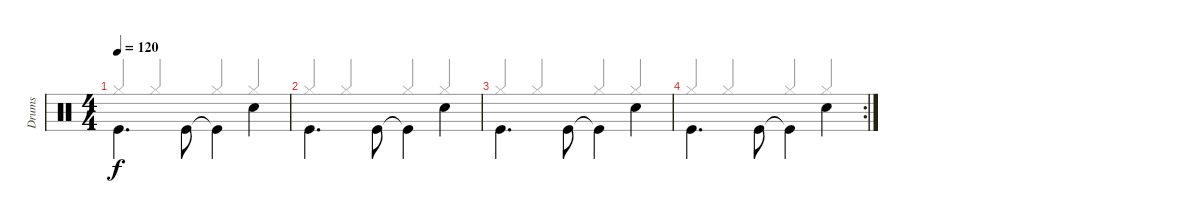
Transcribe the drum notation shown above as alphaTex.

\track ("Drums" "Drums") {instrument percussion}
\staff {score}
\articulation defaults
\voice
\ts (4 4)
\tempo 120
\clef neutral
\ks c "Kick (hit)".4{d dy f beam Down} "Kick (hit)".8{beam Down} "Kick (hit)"{t}.4{beam Down} "Snare (hit) 2".4{beam Down}
|
"Kick (hit)".4{d beam Down} "Kick (hit)".8{beam Down} "Kick (hit)"{t}.4{beam Down} "Snare (hit) 2".4{beam Down} |
"Kick (hit)".4{d beam Down} "Kick (hit)".8{beam Down} "Kick (hit)"{t}.4{beam Down} "Snare (hit) 2".4{beam Down} |
\rc 2 "Kick (hit)".4{d beam Down} "Kick (hit)".8{beam Down} "Kick (hit)"{t}.4{beam Down} "Snare (hit) 2".4{beam Down}
\voice
\clef neutral
\ottava regular
\simile none
\ks c "Hi-Hat (closed)".4{dy f beam Up} "Hi-Hat (closed)".4{beam Up} "Hi-Hat (closed)".4{beam Up} "Hi-Hat (closed)".4{beam Up}
|
"Hi-Hat (closed)".4{beam Up} "Hi-Hat (closed)".4{beam Up} "Hi-Hat (closed)".4{beam Up} "Hi-Hat (closed)".4{beam Up} |
"Hi-Hat (closed)".4{beam Up} "Hi-Hat (closed)".4{beam Up} "Hi-Hat (closed)".4{beam Up} "Hi-Hat (closed)".4{beam Up} |
"Hi-Hat (closed)".4{beam Up} "Hi-Hat (closed)".4{beam Up} "Hi-Hat (closed)".4{beam Up} "Hi-Hat (closed)".4{beam Up}
